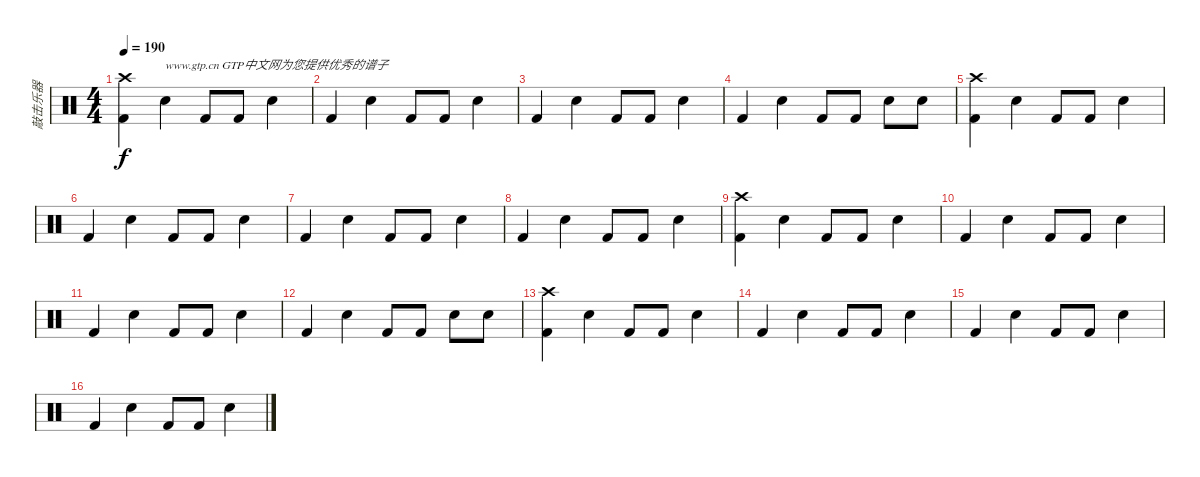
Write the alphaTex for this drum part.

\track ("敲击乐器" "敲击乐器") {instrument percussion}
\staff {score}
\articulation defaults
\ts (4 4)
\tempo 190
\clef neutral
\ks c
("Kick (hit) 2" "Crash high (hit)").4{dy f} "Snare (hit) 2".4{txt "www.gtp.cn GTP中文网为您提供优秀的谱子"} "Kick (hit) 2".8 "Kick (hit) 2".8 "Snare (hit) 2".4 |
"Kick (hit) 2".4 "Snare (hit) 2".4 "Kick (hit) 2".8 "Kick (hit) 2".8 "Snare (hit) 2".4 |
"Kick (hit) 2".4 "Snare (hit) 2".4 "Kick (hit) 2".8 "Kick (hit) 2".8 "Snare (hit) 2".4 |
"Kick (hit) 2".4 "Snare (hit) 2".4 "Kick (hit) 2".8 "Kick (hit) 2".8 "Snare (hit) 2".8 "Snare (hit) 2".8 |
("Kick (hit) 2" "Crash high (hit)").4 "Snare (hit) 2".4 "Kick (hit) 2".8 "Kick (hit) 2".8 "Snare (hit) 2".4 |
"Kick (hit) 2".4 "Snare (hit) 2".4 "Kick (hit) 2".8 "Kick (hit) 2".8 "Snare (hit) 2".4 |
"Kick (hit) 2".4 "Snare (hit) 2".4 "Kick (hit) 2".8 "Kick (hit) 2".8 "Snare (hit) 2".4 |
"Kick (hit) 2".4 "Snare (hit) 2".4 "Kick (hit) 2".8 "Kick (hit) 2".8 "Snare (hit) 2".4 |
("Kick (hit) 2" "Crash high (hit)").4 "Snare (hit) 2".4 "Kick (hit) 2".8 "Kick (hit) 2".8 "Snare (hit) 2".4 |
"Kick (hit) 2".4 "Snare (hit) 2".4 "Kick (hit) 2".8 "Kick (hit) 2".8 "Snare (hit) 2".4 |
"Kick (hit) 2".4 "Snare (hit) 2".4 "Kick (hit) 2".8 "Kick (hit) 2".8 "Snare (hit) 2".4 |
"Kick (hit) 2".4 "Snare (hit) 2".4 "Kick (hit) 2".8 "Kick (hit) 2".8 "Snare (hit) 2".8 "Snare (hit) 2".8 |
("Kick (hit) 2" "Crash high (hit)").4 "Snare (hit) 2".4 "Kick (hit) 2".8 "Kick (hit) 2".8 "Snare (hit) 2".4 |
"Kick (hit) 2".4 "Snare (hit) 2".4 "Kick (hit) 2".8 "Kick (hit) 2".8 "Snare (hit) 2".4 |
"Kick (hit) 2".4 "Snare (hit) 2".4 "Kick (hit) 2".8 "Kick (hit) 2".8 "Snare (hit) 2".4 |
"Kick (hit) 2".4 "Snare (hit) 2".4 "Kick (hit) 2".8 "Kick (hit) 2".8 "Snare (hit) 2".4
